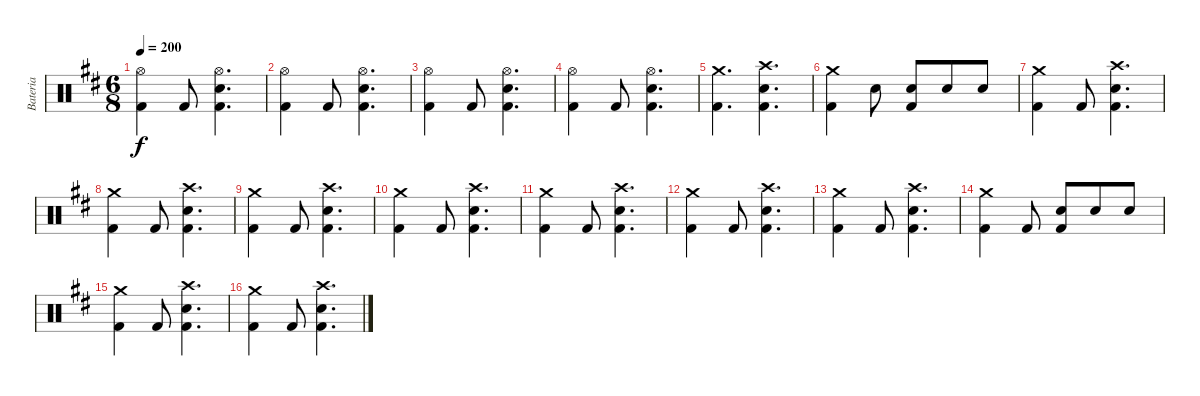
\track ("Bateria" "Bateria") {instrument percussion}
\staff {score}
\articulation defaults
\ts (6 8)
\tempo 200
\clef neutral
\ks bminor
("Hi-Hat (open)" "Kick (hit) 2").4{dy f} "Kick (hit) 2".8 ("Hi-Hat (open)" "Electric Snare (hit)" "Kick (hit) 2").4{d} |
("Hi-Hat (open)" "Kick (hit) 2").4 "Kick (hit) 2".8 ("Hi-Hat (open)" "Electric Snare (hit)" "Kick (hit) 2").4{d} |
("Hi-Hat (open)" "Kick (hit) 2").4 "Kick (hit) 2".8 ("Hi-Hat (open)" "Electric Snare (hit)" "Kick (hit) 2").4{d} |
("Hi-Hat (open)" "Kick (hit) 2").4 "Kick (hit) 2".8 ("Hi-Hat (open)" "Electric Snare (hit)" "Kick (hit) 2").4{d} |
("Crash medium (hit)" "Kick (hit) 2").4{d} ("Crash high (hit)" "Electric Snare (hit)" "Kick (hit) 2").4{d} |
("Crash medium (hit)" "Kick (hit) 2").4 "Electric Snare (hit)".8 ("Electric Snare (hit)" "Kick (hit) 2").8 "Electric Snare (hit)".8 "Electric Snare (hit)".8 |
("Crash medium (hit)" "Kick (hit) 2").4 "Kick (hit) 2".8 ("Crash high (hit)" "Electric Snare (hit)" "Kick (hit) 2").4{d} |
("Crash medium (hit)" "Kick (hit) 2").4 "Kick (hit) 2".8 ("Crash high (hit)" "Electric Snare (hit)" "Kick (hit) 2").4{d} |
("Crash medium (hit)" "Kick (hit) 2").4 "Kick (hit) 2".8 ("Crash high (hit)" "Electric Snare (hit)" "Kick (hit) 2").4{d} |
("Crash medium (hit)" "Kick (hit) 2").4 "Kick (hit) 2".8 ("Crash high (hit)" "Electric Snare (hit)" "Kick (hit) 2").4{d} |
("Crash medium (hit)" "Kick (hit) 2").4 "Kick (hit) 2".8 ("Crash high (hit)" "Electric Snare (hit)" "Kick (hit) 2").4{d} |
("Crash medium (hit)" "Kick (hit) 2").4 "Kick (hit) 2".8 ("Crash high (hit)" "Electric Snare (hit)" "Kick (hit) 2").4{d} |
("Crash medium (hit)" "Kick (hit) 2").4 "Kick (hit) 2".8 ("Crash high (hit)" "Electric Snare (hit)" "Kick (hit) 2").4{d} |
("Crash medium (hit)" "Kick (hit) 2").4 "Kick (hit) 2".8 ("Electric Snare (hit)" "Kick (hit) 2").8 "Electric Snare (hit)".8 "Electric Snare (hit)".8 |
("Crash medium (hit)" "Kick (hit) 2").4 "Kick (hit) 2".8 ("Crash high (hit)" "Electric Snare (hit)" "Kick (hit) 2").4{d} |
("Crash medium (hit)" "Kick (hit) 2").4 "Kick (hit) 2".8 ("Crash high (hit)" "Electric Snare (hit)" "Kick (hit) 2").4{d}
